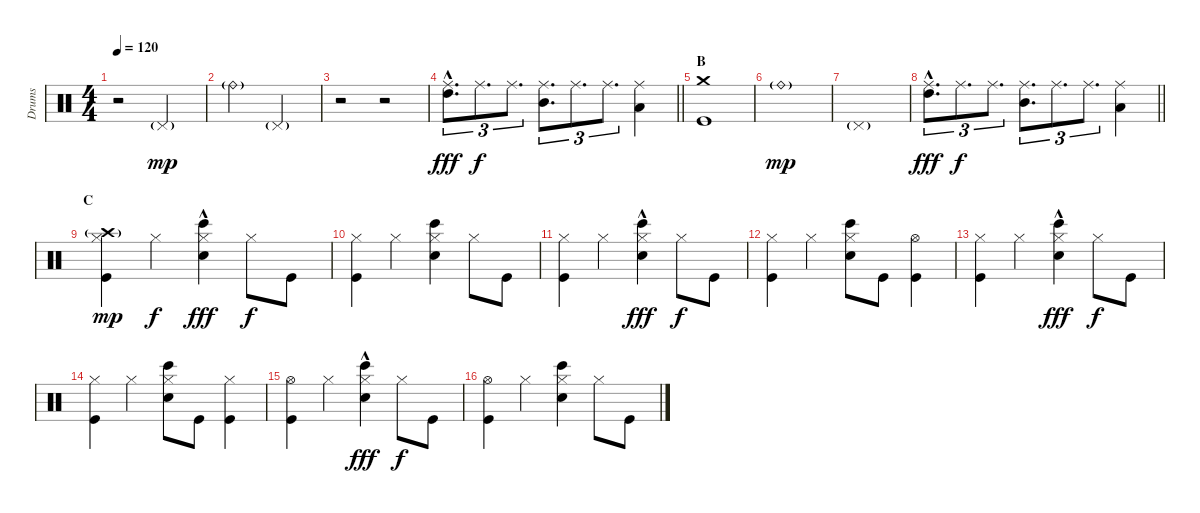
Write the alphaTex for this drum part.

\track ("Drums" "Drums") {instrument percussion}
\staff {score}
\articulation defaults
\ts (4 4)
\tempo 120
\clef neutral
\ks c
r.2{dy mp} "Pedal Hi-Hat (hit)"{g}.2 |
"Ride (bell)"{g}.2 "Pedal Hi-Hat (hit)"{g}.2 |
r.2 r.2 |
\barLineRight lightlight
("Ride (middle)" "High Tom (hit)"{hac}).8{d tu (3 2) dy fff} "Ride (middle)".8{d tu (3 2) dy f} "Ride (middle)".8{d tu (3 2)} ("Ride (middle)" "Mid Tom (hit)").8{d tu (3 2)} "Ride (middle)".8{d tu (3 2)} "Ride (middle)".8{d tu (3 2)} ("Ride (middle)" "Low Tom (hit)").4 |
\section ("" "B")
("Crash medium (hit)" "Kick (hit)").1 |
"Ride (bell)"{g}.1{dy mp} |
"Pedal Hi-Hat (hit)"{g}.1 |
\barLineRight lightlight
("Ride (middle)" "High Tom (hit)"{hac}).8{d tu (3 2) dy fff} "Ride (middle)".8{d tu (3 2) dy f} "Ride (middle)".8{d tu (3 2)} ("Ride (middle)" "Mid Tom (hit)").8{d tu (3 2)} "Ride (middle)".8{d tu (3 2)} "Ride (middle)".8{d tu (3 2)} ("Ride (middle)" "Low Tom (hit)").4 |
\section ("" "C")
("Crash high (hit)"{g} "Hi-Hat (closed)" "Kick (hit)").4{dy mp} "Hi-Hat (closed)".4{dy f} ("Hi-Hat (closed)" "Snare (hit) 2"{hac} "Bongo High (hit)").4{dy fff} "Hi-Hat (closed)".8{dy f} "Kick (hit)".8 |
("Hi-Hat (closed)" "Kick (hit)").4 "Hi-Hat (closed)".4 ("Hi-Hat (closed)" "Snare (hit) 2" "Bongo High (hit)").4 "Hi-Hat (closed)".8 "Kick (hit)".8 |
("Hi-Hat (closed)" "Kick (hit)").4 "Hi-Hat (closed)".4 ("Hi-Hat (closed)" "Snare (hit) 2"{hac} "Bongo High (hit)").4{dy fff} "Hi-Hat (closed)".8{dy f} "Kick (hit)".8 |
("Hi-Hat (closed)" "Kick (hit)").4 "Hi-Hat (closed)".4 ("Hi-Hat (closed)" "Snare (hit) 2" "Bongo High (hit)").8 "Kick (hit)".8 ("Hi-Hat (open)" "Kick (hit)").4 |
("Hi-Hat (closed)" "Kick (hit)").4 "Hi-Hat (closed)".4 ("Hi-Hat (closed)" "Snare (hit) 2"{hac} "Bongo High (hit)").4{dy fff} "Hi-Hat (closed)".8{dy f} "Kick (hit)".8 |
("Hi-Hat (closed)" "Kick (hit)").4 "Hi-Hat (closed)".4 ("Hi-Hat (closed)" "Snare (hit) 2" "Bongo High (hit)").8 "Kick (hit)".8 ("Hi-Hat (closed)" "Kick (hit)").4 |
("Hi-Hat (open)" "Kick (hit)").4 "Hi-Hat (closed)".4 ("Hi-Hat (closed)" "Snare (hit) 2"{hac} "Bongo High (hit)").4{dy fff} "Hi-Hat (closed)".8{dy f} "Kick (hit)".8 |
("Hi-Hat (open)" "Kick (hit)").4 "Hi-Hat (closed)".4 ("Hi-Hat (closed)" "Snare (hit) 2" "Bongo High (hit)").4 "Hi-Hat (closed)".8 "Kick (hit)".8
